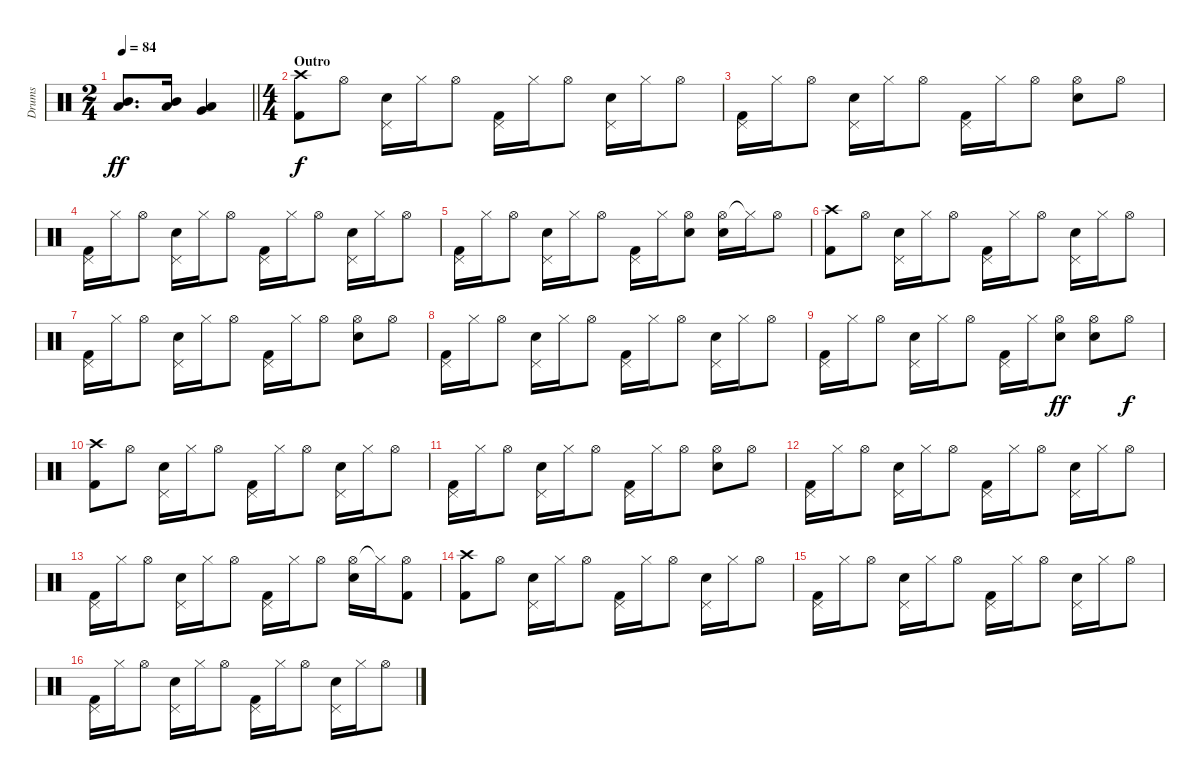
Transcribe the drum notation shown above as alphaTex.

\track ("Drums" "Drums") {instrument percussion}
\staff {score}
\articulation defaults
\ts (2 4)
\tempo 84
\clef neutral
\barLineRight lightlight
\ks c
("Low Tom (hit)" "Mid Tom (hit)").8{d dy ff} ("Low Tom (hit)" "Mid Tom (hit)").16 ("Very Low Tom (hit)" "Low Tom (hit)").4 |
\ts (4 4)
\section ("" "Outro")
("Crash high (hit)" "Kick (hit) 2").8{dy f} "Hi-Hat (open)".8 ("Pedal Hi-Hat (hit)" "Electric Snare (hit)").16 "Hi-Hat (closed)".16 "Hi-Hat (open)".8 ("Pedal Hi-Hat (hit)" "Kick (hit) 2").16 "Hi-Hat (closed)".16 "Hi-Hat (open)".8 ("Pedal Hi-Hat (hit)" "Electric Snare (hit)").16 "Hi-Hat (closed)".16 "Hi-Hat (open)".8 |
("Pedal Hi-Hat (hit)" "Kick (hit) 2").16 "Hi-Hat (closed)".16 "Hi-Hat (open)".8 ("Pedal Hi-Hat (hit)" "Electric Snare (hit)").16 "Hi-Hat (closed)".16 "Hi-Hat (open)".8 ("Pedal Hi-Hat (hit)" "Kick (hit) 2").16 "Hi-Hat (closed)".16 "Hi-Hat (open)".8 ("Hi-Hat (open)" "Electric Snare (hit)").8 "Hi-Hat (open)".8 |
("Pedal Hi-Hat (hit)" "Kick (hit) 2").16 "Hi-Hat (closed)".16 "Hi-Hat (open)".8 ("Pedal Hi-Hat (hit)" "Electric Snare (hit)").16 "Hi-Hat (closed)".16 "Hi-Hat (open)".8 ("Pedal Hi-Hat (hit)" "Kick (hit) 2").16 "Hi-Hat (closed)".16 "Hi-Hat (open)".8 ("Pedal Hi-Hat (hit)" "Electric Snare (hit)").16 "Hi-Hat (closed)".16 "Hi-Hat (open)".8 |
("Pedal Hi-Hat (hit)" "Kick (hit) 2").16 "Hi-Hat (closed)".16 "Hi-Hat (open)".8 ("Pedal Hi-Hat (hit)" "Electric Snare (hit)").16 "Hi-Hat (closed)".16 "Hi-Hat (open)".8 ("Pedal Hi-Hat (hit)" "Kick (hit) 2").16 "Hi-Hat (closed)".16 ("Hi-Hat (open)" "Electric Snare (hit)").8 ("Hi-Hat (open)" "Electric Snare (hit)").16 "Hi-Hat (closed)"{t}.16 "Hi-Hat (open)".8 |
("Crash high (hit)" "Kick (hit) 2").8 "Hi-Hat (open)".8 ("Pedal Hi-Hat (hit)" "Electric Snare (hit)").16 "Hi-Hat (closed)".16 "Hi-Hat (open)".8 ("Pedal Hi-Hat (hit)" "Kick (hit) 2").16 "Hi-Hat (closed)".16 "Hi-Hat (open)".8 ("Pedal Hi-Hat (hit)" "Electric Snare (hit)").16 "Hi-Hat (closed)".16 "Hi-Hat (open)".8 |
("Pedal Hi-Hat (hit)" "Kick (hit) 2").16 "Hi-Hat (closed)".16 "Hi-Hat (open)".8 ("Pedal Hi-Hat (hit)" "Electric Snare (hit)").16 "Hi-Hat (closed)".16 "Hi-Hat (open)".8 ("Pedal Hi-Hat (hit)" "Kick (hit) 2").16 "Hi-Hat (closed)".16 "Hi-Hat (open)".8 ("Hi-Hat (open)" "Electric Snare (hit)").8 "Hi-Hat (open)".8 |
("Pedal Hi-Hat (hit)" "Kick (hit) 2").16 "Hi-Hat (closed)".16 "Hi-Hat (open)".8 ("Pedal Hi-Hat (hit)" "Electric Snare (hit)").16 "Hi-Hat (closed)".16 "Hi-Hat (open)".8 ("Pedal Hi-Hat (hit)" "Kick (hit) 2").16 "Hi-Hat (closed)".16 "Hi-Hat (open)".8 ("Pedal Hi-Hat (hit)" "Electric Snare (hit)").16 "Hi-Hat (closed)".16 "Hi-Hat (open)".8 |
("Pedal Hi-Hat (hit)" "Kick (hit) 2").16 "Hi-Hat (closed)".16 "Hi-Hat (open)".8 ("Pedal Hi-Hat (hit)" "Electric Snare (hit)").16 "Hi-Hat (closed)".16 "Hi-Hat (open)".8 ("Pedal Hi-Hat (hit)" "Kick (hit) 2").16 "Hi-Hat (closed)".16 ("Hi-Hat (open)" "Electric Snare (hit)").8{dy ff} ("Hi-Hat (open)" "Electric Snare (hit)").8 "Hi-Hat (open)".8{dy f} |
("Crash high (hit)" "Kick (hit) 2").8 "Hi-Hat (open)".8 ("Pedal Hi-Hat (hit)" "Electric Snare (hit)").16 "Hi-Hat (closed)".16 "Hi-Hat (open)".8 ("Pedal Hi-Hat (hit)" "Kick (hit) 2").16 "Hi-Hat (closed)".16 "Hi-Hat (open)".8 ("Pedal Hi-Hat (hit)" "Electric Snare (hit)").16 "Hi-Hat (closed)".16 "Hi-Hat (open)".8 |
("Pedal Hi-Hat (hit)" "Kick (hit) 2").16 "Hi-Hat (closed)".16 "Hi-Hat (open)".8 ("Pedal Hi-Hat (hit)" "Electric Snare (hit)").16 "Hi-Hat (closed)".16 "Hi-Hat (open)".8 ("Pedal Hi-Hat (hit)" "Kick (hit) 2").16 "Hi-Hat (closed)".16 "Hi-Hat (open)".8 ("Hi-Hat (open)" "Electric Snare (hit)").8 "Hi-Hat (open)".8 |
("Pedal Hi-Hat (hit)" "Kick (hit) 2").16 "Hi-Hat (closed)".16 "Hi-Hat (open)".8 ("Pedal Hi-Hat (hit)" "Electric Snare (hit)").16 "Hi-Hat (closed)".16 "Hi-Hat (open)".8 ("Pedal Hi-Hat (hit)" "Kick (hit) 2").16 "Hi-Hat (closed)".16 "Hi-Hat (open)".8 ("Pedal Hi-Hat (hit)" "Electric Snare (hit)").16 "Hi-Hat (closed)".16 "Hi-Hat (open)".8 |
("Pedal Hi-Hat (hit)" "Kick (hit) 2").16 "Hi-Hat (closed)".16 "Hi-Hat (open)".8 ("Pedal Hi-Hat (hit)" "Electric Snare (hit)").16 "Hi-Hat (closed)".16 "Hi-Hat (open)".8 ("Pedal Hi-Hat (hit)" "Kick (hit) 2").16 "Hi-Hat (closed)".16 "Hi-Hat (open)".8 ("Hi-Hat (open)" "Electric Snare (hit)").16 "Hi-Hat (closed)"{t}.16 ("Hi-Hat (open)" "Kick (hit) 2").8 |
("Crash high (hit)" "Kick (hit) 2").8 "Hi-Hat (open)".8 ("Pedal Hi-Hat (hit)" "Electric Snare (hit)").16 "Hi-Hat (closed)".16 "Hi-Hat (open)".8 ("Pedal Hi-Hat (hit)" "Kick (hit) 2").16 "Hi-Hat (closed)".16 "Hi-Hat (open)".8 ("Pedal Hi-Hat (hit)" "Electric Snare (hit)").16 "Hi-Hat (closed)".16 "Hi-Hat (open)".8 |
("Pedal Hi-Hat (hit)" "Kick (hit) 2").16 "Hi-Hat (closed)".16 "Hi-Hat (open)".8 ("Pedal Hi-Hat (hit)" "Electric Snare (hit)").16 "Hi-Hat (closed)".16 "Hi-Hat (open)".8 ("Pedal Hi-Hat (hit)" "Kick (hit) 2").16 "Hi-Hat (closed)".16 "Hi-Hat (open)".8 ("Pedal Hi-Hat (hit)" "Electric Snare (hit)").16 "Hi-Hat (closed)".16 "Hi-Hat (open)".8 |
("Pedal Hi-Hat (hit)" "Kick (hit) 2").16 "Hi-Hat (closed)".16 "Hi-Hat (open)".8 ("Pedal Hi-Hat (hit)" "Electric Snare (hit)").16 "Hi-Hat (closed)".16 "Hi-Hat (open)".8 ("Pedal Hi-Hat (hit)" "Kick (hit) 2").16 "Hi-Hat (closed)".16 "Hi-Hat (open)".8 ("Pedal Hi-Hat (hit)" "Electric Snare (hit)").16 "Hi-Hat (closed)".16 "Hi-Hat (open)".8
